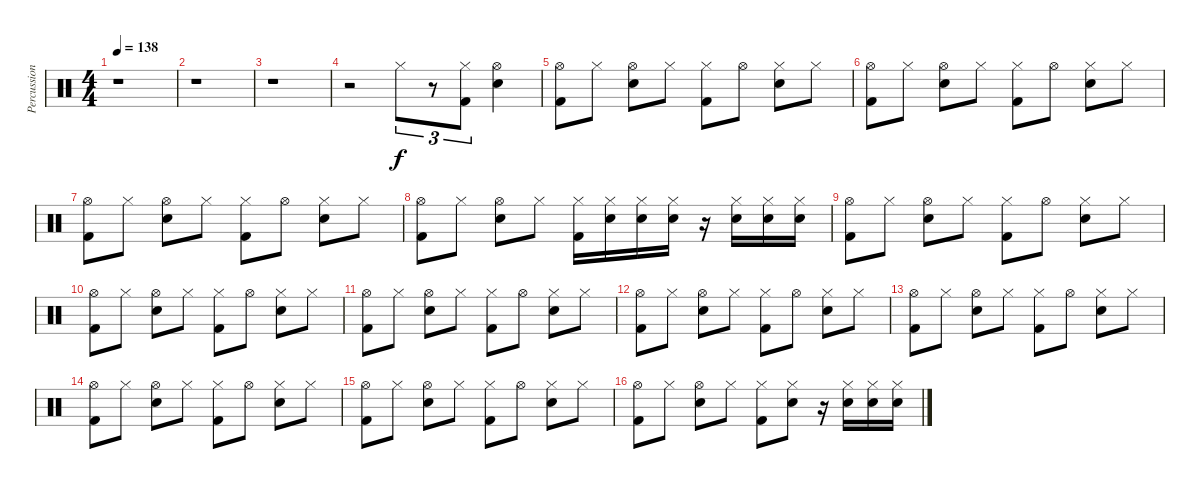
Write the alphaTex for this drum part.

\track ("Percussions" "Percussion") {instrument percussion}
\staff {score}
\articulation defaults
\ts (4 4)
\tempo 138
\clef neutral
\ks c
r.1{dy f} |
r.1 |
r.1 |
r.2 "Hi-Hat (closed)".8{tu (3 2)} r.8{tu (3 2)} ("Hi-Hat (closed)" "Kick (hit) 2").8{tu (3 2)} ("Hi-Hat (open)" "Snare (hit) 2").4 |
("Hi-Hat (open)" "Kick (hit) 2").8 "Hi-Hat (closed)".8 ("Hi-Hat (open)" "Snare (hit) 2").8 "Hi-Hat (closed)".8 ("Hi-Hat (closed)" "Kick (hit) 2").8 "Hi-Hat (open)".8 ("Hi-Hat (closed)" "Snare (hit) 2").8 "Hi-Hat (closed)".8 |
("Hi-Hat (open)" "Kick (hit) 2").8 "Hi-Hat (closed)".8 ("Hi-Hat (open)" "Snare (hit) 2").8 "Hi-Hat (closed)".8 ("Hi-Hat (closed)" "Kick (hit) 2").8 "Hi-Hat (open)".8 ("Hi-Hat (closed)" "Snare (hit) 2").8 "Hi-Hat (closed)".8 |
("Hi-Hat (open)" "Kick (hit) 2").8 "Hi-Hat (closed)".8 ("Hi-Hat (open)" "Snare (hit) 2").8 "Hi-Hat (closed)".8 ("Hi-Hat (closed)" "Kick (hit) 2").8 "Hi-Hat (open)".8 ("Hi-Hat (closed)" "Snare (hit) 2").8 "Hi-Hat (closed)".8 |
("Hi-Hat (open)" "Kick (hit) 2").8 "Hi-Hat (closed)".8 ("Hi-Hat (open)" "Snare (hit) 2").8 "Hi-Hat (closed)".8 ("Hi-Hat (closed)" "Kick (hit) 2").16 ("Hi-Hat (closed)" "Snare (hit) 2").16 ("Hi-Hat (closed)" "Snare (hit) 2").16 ("Hi-Hat (closed)" "Snare (hit) 2").16 r.16 ("Hi-Hat (closed)" "Snare (hit) 2").16 ("Hi-Hat (closed)" "Snare (hit) 2").16 ("Hi-Hat (closed)" "Snare (hit) 2").16 |
("Hi-Hat (open)" "Kick (hit) 2").8 "Hi-Hat (closed)".8 ("Hi-Hat (open)" "Snare (hit) 2").8 "Hi-Hat (closed)".8 ("Hi-Hat (closed)" "Kick (hit) 2").8 "Hi-Hat (open)".8 ("Hi-Hat (closed)" "Snare (hit) 2").8 "Hi-Hat (closed)".8 |
("Hi-Hat (open)" "Kick (hit) 2").8 "Hi-Hat (closed)".8 ("Hi-Hat (open)" "Snare (hit) 2").8 "Hi-Hat (closed)".8 ("Hi-Hat (closed)" "Kick (hit) 2").8 "Hi-Hat (open)".8 ("Hi-Hat (closed)" "Snare (hit) 2").8 "Hi-Hat (closed)".8 |
("Hi-Hat (open)" "Kick (hit) 2").8 "Hi-Hat (closed)".8 ("Hi-Hat (open)" "Snare (hit) 2").8 "Hi-Hat (closed)".8 ("Hi-Hat (closed)" "Kick (hit) 2").8 "Hi-Hat (open)".8 ("Hi-Hat (closed)" "Snare (hit) 2").8 "Hi-Hat (closed)".8 |
("Hi-Hat (open)" "Kick (hit) 2").8 "Hi-Hat (closed)".8 ("Hi-Hat (open)" "Snare (hit) 2").8 "Hi-Hat (closed)".8 ("Hi-Hat (closed)" "Kick (hit) 2").8 "Hi-Hat (open)".8 ("Hi-Hat (closed)" "Snare (hit) 2").8 "Hi-Hat (closed)".8 |
("Hi-Hat (open)" "Kick (hit) 2").8 "Hi-Hat (closed)".8 ("Hi-Hat (open)" "Snare (hit) 2").8 "Hi-Hat (closed)".8 ("Hi-Hat (closed)" "Kick (hit) 2").8 "Hi-Hat (open)".8 ("Hi-Hat (closed)" "Snare (hit) 2").8 "Hi-Hat (closed)".8 |
("Hi-Hat (open)" "Kick (hit) 2").8 "Hi-Hat (closed)".8 ("Hi-Hat (open)" "Snare (hit) 2").8 "Hi-Hat (closed)".8 ("Hi-Hat (closed)" "Kick (hit) 2").8 "Hi-Hat (open)".8 ("Hi-Hat (closed)" "Snare (hit) 2").8 "Hi-Hat (closed)".8 |
("Hi-Hat (open)" "Kick (hit) 2").8 "Hi-Hat (closed)".8 ("Hi-Hat (open)" "Snare (hit) 2").8 "Hi-Hat (closed)".8 ("Hi-Hat (closed)" "Kick (hit) 2").8 "Hi-Hat (open)".8 ("Hi-Hat (closed)" "Snare (hit) 2").8 "Hi-Hat (closed)".8 |
("Hi-Hat (open)" "Kick (hit) 2").8 "Hi-Hat (closed)".8 ("Hi-Hat (open)" "Snare (hit) 2").8 "Hi-Hat (closed)".8 ("Hi-Hat (closed)" "Kick (hit) 2").8 ("Hi-Hat (closed)" "Snare (hit) 2").8 r.16 ("Hi-Hat (closed)" "Snare (hit) 2").16 ("Hi-Hat (closed)" "Snare (hit) 2").16 ("Hi-Hat (closed)" "Snare (hit) 2").16
